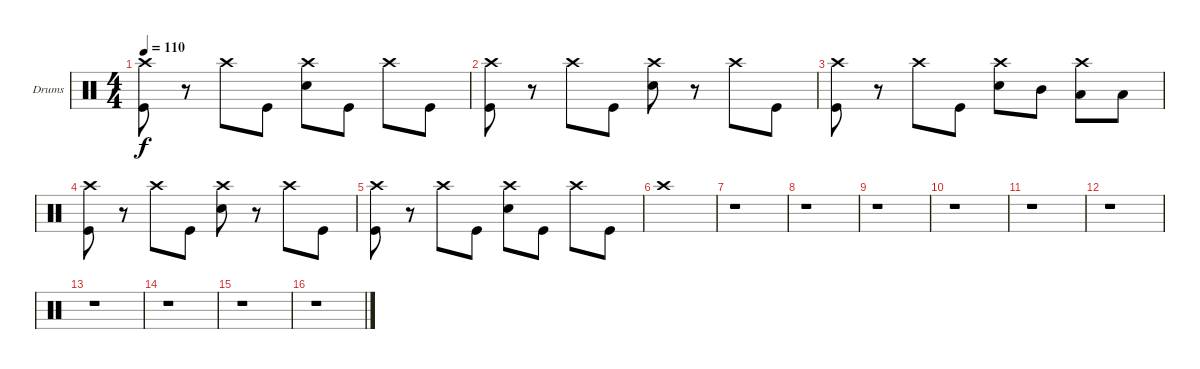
\defaultSystemsLayout 4
\bracketExtendMode groupsimilarinstruments
\firstSystemTrackNameOrientation horizontal
\otherSystemsTrackNameOrientation horizontal
\track ("Drumkit" "Drums") {instrument percussion}
\staff {score}
\articulation defaults
\ts (4 4)
\tempo 110
\clef neutral
\scale
0.333333
\ks c
("Crash high (hit)" "Kick (hit)").8{dy f} r.8 "Crash high (hit)".8 "Kick (hit)".8 ("Crash high (hit)" "Snare (hit) 2").8 "Kick (hit)".8 "Crash high (hit)".8 "Kick (hit)".8 |
\scale
0.333333 ("Crash high (hit)" "Kick (hit)").8 r.8 "Crash high (hit)".8 "Kick (hit)".8 ("Crash high (hit)" "Snare (hit) 2").8 r.8 "Crash high (hit)".8 "Kick (hit)".8 |
\scale
0.333333 ("Crash high (hit)" "Kick (hit)").8 r.8 "Crash high (hit)".8 "Kick (hit)".8 ("Crash high (hit)" "Snare (hit) 2").8 "Mid Tom (hit)".8 ("Crash high (hit)" "Low Tom (hit)").8 "Low Tom (hit)".8 |
\scale
0.333333 ("Crash high (hit)" "Kick (hit)").8 r.8 "Crash high (hit)".8 "Kick (hit)".8 ("Crash high (hit)" "Snare (hit) 2").8 r.8 "Crash high (hit)".8 "Kick (hit)".8 |
\scale
0.333333 ("Crash high (hit)" "Kick (hit)").8 r.8 "Crash high (hit)".8 "Kick (hit)".8 ("Crash high (hit)" "Snare (hit) 2").8 "Kick (hit)".8 "Crash high (hit)".8 "Kick (hit)".8 |
\scale
0.333333 "Crash high (hit)".1 |
\scale
0.333333 r.1 |
\scale
0.333333 r.1 |
\scale
0.333333 r.1 |
\scale
0.333333 r.1 |
\scale
0.333333 r.1 |
\scale
0.333333 r.1 |
\scale
0.333333 r.1 |
\scale
0.333333 r.1 |
\scale
0.333333 r.1 |
\scale
0.333333 r.1
